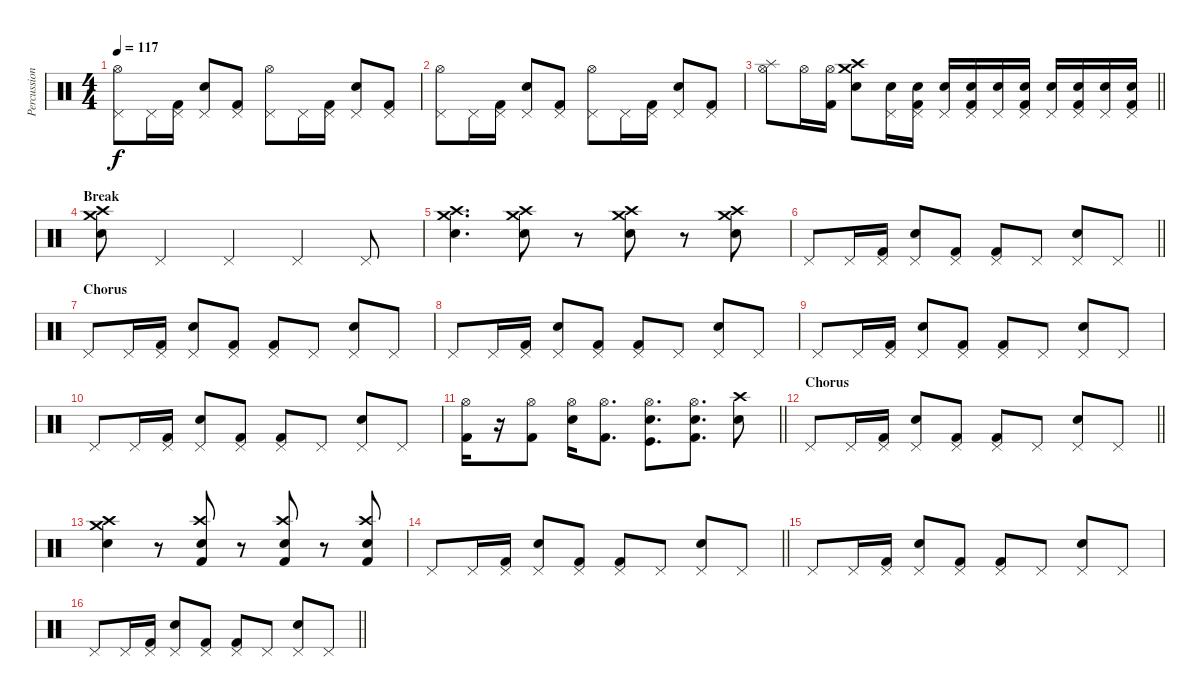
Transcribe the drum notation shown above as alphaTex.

\track ("Percussion" "Percussion") {instrument percussion}
\staff {score}
\articulation defaults
\ts (4 4)
\tempo 117
\clef neutral
\ks c
("Pedal Hi-Hat (hit)" "Hi-Hat (open)").8{dy f} "Pedal Hi-Hat (hit)".16 ("Pedal Hi-Hat (hit)" "Kick (hit) 2").16 ("Pedal Hi-Hat (hit)" "Electric Snare (hit)").8 ("Pedal Hi-Hat (hit)" "Kick (hit) 2").8 ("Pedal Hi-Hat (hit)" "Hi-Hat (open)").8 "Pedal Hi-Hat (hit)".16 ("Pedal Hi-Hat (hit)" "Kick (hit) 2").16 ("Pedal Hi-Hat (hit)" "Electric Snare (hit)").8 ("Pedal Hi-Hat (hit)" "Kick (hit) 2").8 |
("Pedal Hi-Hat (hit)" "Hi-Hat (open)").8 "Pedal Hi-Hat (hit)".16 ("Pedal Hi-Hat (hit)" "Kick (hit) 2").16 ("Pedal Hi-Hat (hit)" "Electric Snare (hit)").8 ("Pedal Hi-Hat (hit)" "Kick (hit) 2").8 ("Pedal Hi-Hat (hit)" "Hi-Hat (open)").8 "Pedal Hi-Hat (hit)".16 ("Pedal Hi-Hat (hit)" "Kick (hit) 2").16 ("Pedal Hi-Hat (hit)" "Electric Snare (hit)").8 ("Pedal Hi-Hat (hit)" "Kick (hit) 2").8 |
\barLineRight lightlight
("Splash (hit)" "Hi-Hat (open)").8 "Hi-Hat (open)".16 ("Hi-Hat (open)" "Kick (hit) 2").16 ("Crash high (hit)" "Electric Snare (hit)" "Crash medium (hit)").8 ("Pedal Hi-Hat (hit)" "Electric Snare (hit)").16 ("Pedal Hi-Hat (hit)" "Electric Snare (hit)" "Kick (hit) 2").16 ("Pedal Hi-Hat (hit)" "Electric Snare (hit)").16 ("Pedal Hi-Hat (hit)" "Electric Snare (hit)" "Kick (hit) 2").16 ("Pedal Hi-Hat (hit)" "Electric Snare (hit)").16 ("Pedal Hi-Hat (hit)" "Electric Snare (hit)" "Kick (hit) 2").16 ("Pedal Hi-Hat (hit)" "Electric Snare (hit)").16 ("Pedal Hi-Hat (hit)" "Electric Snare (hit)" "Kick (hit) 2").16 ("Pedal Hi-Hat (hit)" "Electric Snare (hit)").16 ("Pedal Hi-Hat (hit)" "Electric Snare (hit)" "Kick (hit) 2").16 |
\section ("" "Break")
("Crash high (hit)" "Electric Snare (hit)" "Crash medium (hit)").8 "Pedal Hi-Hat (hit)".4 "Pedal Hi-Hat (hit)".4 "Pedal Hi-Hat (hit)".4 "Pedal Hi-Hat (hit)".8 |
("Crash high (hit)" "Electric Snare (hit)" "Crash medium (hit)").4{d} ("Crash high (hit)" "Electric Snare (hit)" "Crash medium (hit)").8 r.8 ("Crash high (hit)" "Snare (hit) 2" "Crash medium (hit)").8 r.8 ("Crash high (hit)" "Snare (hit) 2" "Crash medium (hit)").8 |
\barLineRight lightlight "Pedal Hi-Hat (hit)".8 "Pedal Hi-Hat (hit)".16
("Pedal Hi-Hat (hit)" "Kick (hit) 2").16 ("Pedal Hi-Hat (hit)" "Electric Snare (hit)").8 ("Pedal Hi-Hat (hit)" "Kick (hit) 2").8 ("Pedal Hi-Hat (hit)" "Kick (hit) 2").8 "Pedal Hi-Hat (hit)".8 ("Pedal Hi-Hat (hit)" "Electric Snare (hit)").8 "Pedal Hi-Hat (hit)".8 |
\section ("" "Chorus")
"Pedal Hi-Hat (hit)".8 "Pedal Hi-Hat (hit)".16 ("Pedal Hi-Hat (hit)" "Kick (hit) 2").16 ("Pedal Hi-Hat (hit)" "Electric Snare (hit)").8 ("Pedal Hi-Hat (hit)" "Kick (hit) 2").8 ("Pedal Hi-Hat (hit)" "Kick (hit) 2").8 "Pedal Hi-Hat (hit)".8 ("Pedal Hi-Hat (hit)" "Electric Snare (hit)").8 "Pedal Hi-Hat (hit)".8 |
"Pedal Hi-Hat (hit)".8 "Pedal Hi-Hat (hit)".16 ("Pedal Hi-Hat (hit)" "Kick (hit) 2").16 ("Pedal Hi-Hat (hit)" "Electric Snare (hit)").8 ("Pedal Hi-Hat (hit)" "Kick (hit) 2").8 ("Pedal Hi-Hat (hit)" "Kick (hit) 2").8 "Pedal Hi-Hat (hit)".8 ("Pedal Hi-Hat (hit)" "Electric Snare (hit)").8 "Pedal Hi-Hat (hit)".8 |
"Pedal Hi-Hat (hit)".8 "Pedal Hi-Hat (hit)".16 ("Pedal Hi-Hat (hit)" "Kick (hit) 2").16 ("Pedal Hi-Hat (hit)" "Electric Snare (hit)").8 ("Pedal Hi-Hat (hit)" "Kick (hit) 2").8 ("Pedal Hi-Hat (hit)" "Kick (hit) 2").8 "Pedal Hi-Hat (hit)".8 ("Pedal Hi-Hat (hit)" "Electric Snare (hit)").8 "Pedal Hi-Hat (hit)".8 |
"Pedal Hi-Hat (hit)".8 "Pedal Hi-Hat (hit)".16 ("Pedal Hi-Hat (hit)" "Kick (hit) 2").16 ("Pedal Hi-Hat (hit)" "Electric Snare (hit)").8 ("Pedal Hi-Hat (hit)" "Kick (hit) 2").8 ("Pedal Hi-Hat (hit)" "Kick (hit) 2").8 "Pedal Hi-Hat (hit)".8 ("Pedal Hi-Hat (hit)" "Electric Snare (hit)").8 "Pedal Hi-Hat (hit)".8 |
\barLineRight lightlight
("Hi-Hat (open)" "Kick (hit) 2").16 r.16 ("Hi-Hat (open)" "Kick (hit) 2").8 ("Hi-Hat (open)" "Electric Snare (hit)").16 ("Hi-Hat (open)" "Kick (hit) 2").8{d} ("Hi-Hat (open)" "Snare (hit) 2" "Kick (hit)").8{d} ("Hi-Hat (open)" "Snare (hit) 2" "Kick (hit) 2").8{d} ("Crash high (hit)" "Snare (hit) 2").8 |
\section ("" "Chorus")
\barLineRight lightlight "Pedal Hi-Hat (hit)".8 "Pedal Hi-Hat (hit)".16
("Pedal Hi-Hat (hit)" "Kick (hit) 2").16 ("Pedal Hi-Hat (hit)" "Electric Snare (hit)").8 ("Pedal Hi-Hat (hit)" "Kick (hit) 2").8 ("Pedal Hi-Hat (hit)" "Kick (hit) 2").8 "Pedal Hi-Hat (hit)".8 ("Pedal Hi-Hat (hit)" "Electric Snare (hit)").8 "Pedal Hi-Hat (hit)".8 |
("Crash high (hit)" "Electric Snare (hit)" "Crash medium (hit)").4 r.8 ("Crash high (hit)" "Snare (hit) 2" "Kick (hit) 2").8 r.8 ("Crash high (hit)" "Snare (hit) 2" "Kick (hit) 2").8 r.8 ("Crash high (hit)" "Snare (hit) 2" "Kick (hit) 2").8 |
\barLineRight lightlight "Pedal Hi-Hat (hit)".8 "Pedal Hi-Hat (hit)".16
("Pedal Hi-Hat (hit)" "Kick (hit) 2").16 ("Pedal Hi-Hat (hit)" "Electric Snare (hit)").8 ("Pedal Hi-Hat (hit)" "Kick (hit) 2").8 ("Pedal Hi-Hat (hit)" "Kick (hit) 2").8 "Pedal Hi-Hat (hit)".8 ("Pedal Hi-Hat (hit)" "Electric Snare (hit)").8 "Pedal Hi-Hat (hit)".8 |
"Pedal Hi-Hat (hit)".8 "Pedal Hi-Hat (hit)".16 ("Pedal Hi-Hat (hit)" "Kick (hit) 2").16 ("Pedal Hi-Hat (hit)" "Electric Snare (hit)").8 ("Pedal Hi-Hat (hit)" "Kick (hit) 2").8 ("Pedal Hi-Hat (hit)" "Kick (hit) 2").8 "Pedal Hi-Hat (hit)".8 ("Pedal Hi-Hat (hit)" "Electric Snare (hit)").8 "Pedal Hi-Hat (hit)".8 |
\barLineRight lightlight "Pedal Hi-Hat (hit)".8 "Pedal Hi-Hat (hit)".16
("Pedal Hi-Hat (hit)" "Kick (hit) 2").16 ("Pedal Hi-Hat (hit)" "Electric Snare (hit)").8 ("Pedal Hi-Hat (hit)" "Kick (hit) 2").8 ("Pedal Hi-Hat (hit)" "Kick (hit) 2").8 "Pedal Hi-Hat (hit)".8 ("Pedal Hi-Hat (hit)" "Electric Snare (hit)").8 "Pedal Hi-Hat (hit)".8
